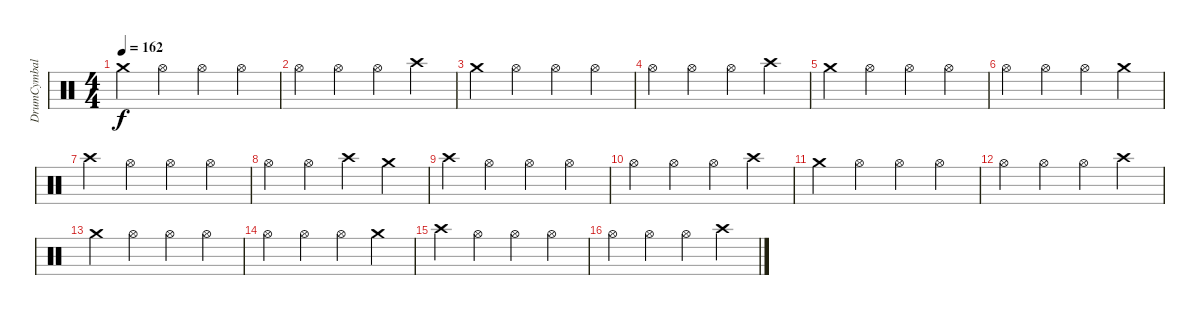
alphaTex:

\track ("DrumCymbal" "DrumCymbal") {instrument percussion}
\staff {score}
\articulation defaults
\ts (4 4)
\tempo 162
\clef neutral
\ks c "Crash medium (hit)".4{dy f} "Hi-Hat (open)".4 "Hi-Hat (open)".4 "Hi-Hat (open)".4
|
"Hi-Hat (open)".4 "Hi-Hat (open)".4 "Hi-Hat (open)".4 "Crash high (hit)".4 |
"Crash medium (hit)".4 "Hi-Hat (open)".4 "Hi-Hat (open)".4 "Hi-Hat (open)".4 |
"Hi-Hat (open)".4 "Hi-Hat (open)".4 "Hi-Hat (open)".4 "Crash high (hit)".4 |
"Crash medium (hit)".4 "Hi-Hat (open)".4 "Hi-Hat (open)".4 "Hi-Hat (open)".4 |
"Hi-Hat (open)".4 "Hi-Hat (open)".4 "Hi-Hat (open)".4 "Crash medium (hit)".4 |
"Crash high (hit)".4 "Hi-Hat (open)".4 "Hi-Hat (open)".4 "Hi-Hat (open)".4 |
"Hi-Hat (open)".4 "Hi-Hat (open)".4 "Crash high (hit)".4 "Crash medium (hit)".4 |
"Crash high (hit)".4 "Hi-Hat (open)".4 "Hi-Hat (open)".4 "Hi-Hat (open)".4 |
"Hi-Hat (open)".4 "Hi-Hat (open)".4 "Hi-Hat (open)".4 "Crash high (hit)".4 |
"Crash medium (hit)".4 "Hi-Hat (open)".4 "Hi-Hat (open)".4 "Hi-Hat (open)".4 |
"Hi-Hat (open)".4 "Hi-Hat (open)".4 "Hi-Hat (open)".4 "Crash high (hit)".4 |
"Crash medium (hit)".4 "Hi-Hat (open)".4 "Hi-Hat (open)".4 "Hi-Hat (open)".4 |
"Hi-Hat (open)".4 "Hi-Hat (open)".4 "Hi-Hat (open)".4 "Crash medium (hit)".4 |
"Crash high (hit)".4 "Hi-Hat (open)".4 "Hi-Hat (open)".4 "Hi-Hat (open)".4 |
"Hi-Hat (open)".4 "Hi-Hat (open)".4 "Hi-Hat (open)".4 "Crash high (hit)".4
